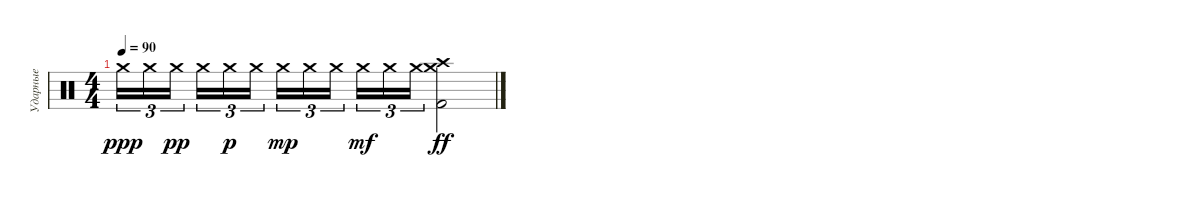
\track ("Ударные" "Ударные") {instrument percussion}
\staff {score}
\articulation defaults
\ts (4 4)
\tempo 90
\clef neutral
\ks c "Crash medium (hit)".16{tu (3 2) dy ppp} "Crash medium (hit)".16{tu (3 2)} "Crash medium (hit)".16{tu (3 2) dy pp beam splitsecondary} "Crash medium (hit)".16{tu (3 2)} "Crash medium (hit)".16{tu (3 2) dy p} "Crash medium (hit)".16{tu (3 2)} "Crash medium (hit)".16{tu (3 2) dy mp} "Crash medium (hit)".16{tu (3 2)} "Crash medium (hit)".16{tu (3 2) beam splitsecondary} "Crash medium (hit)".16{tu (3 2) dy mf} "Crash medium (hit)".16{tu (3 2)} "Crash medium (hit)".16{tu (3 2)}
("Crash medium (hit)" "Crash high (hit)" "Kick (hit) 2").2{dy ff}
